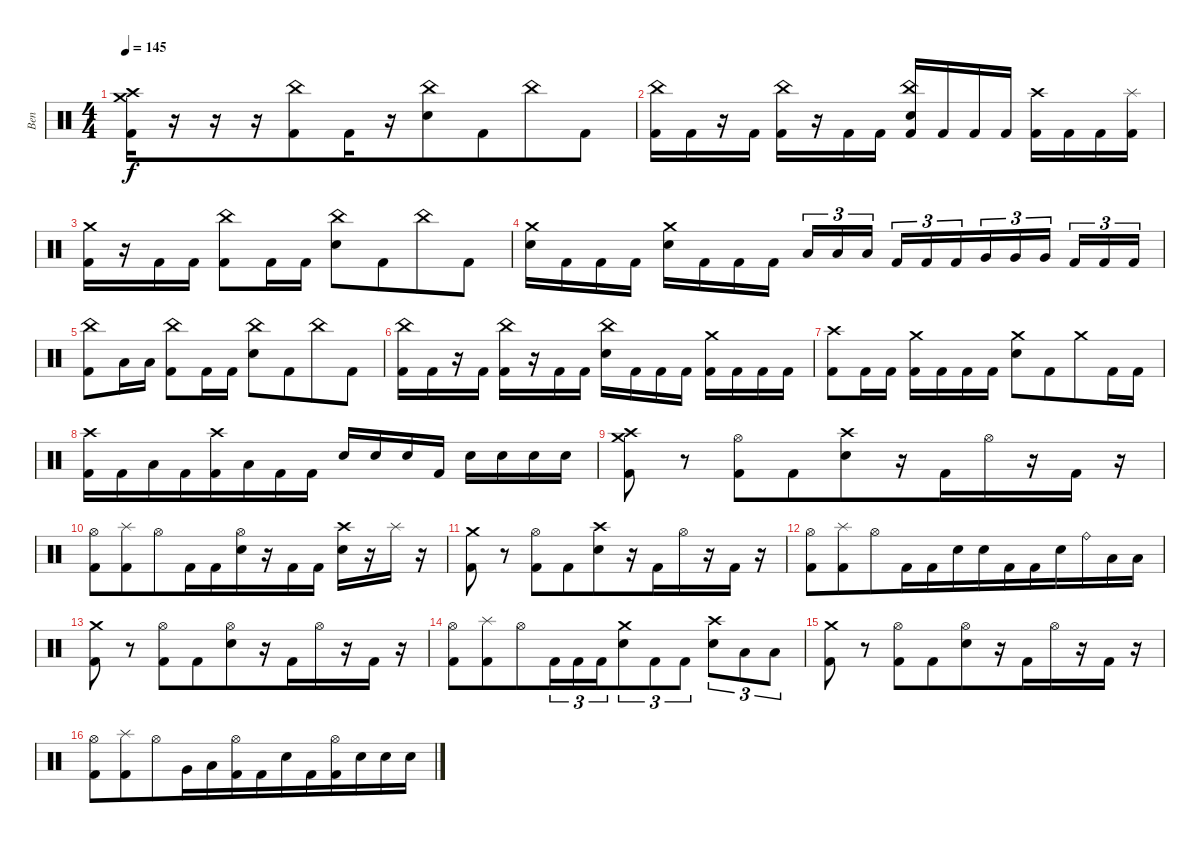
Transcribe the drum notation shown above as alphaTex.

\track ("Ben" "Ben") {instrument percussion}
\staff {score}
\articulation defaults
\ts (4 4)
\tempo 145
\clef neutral
\ks c
("Crash medium (hit)" "Crash high (hit)" "Kick (hit) 2").16{dy f beam merge} r.16 r.16 r.16 ("China (hit)" "Kick (hit) 2").8{beam merge} "Kick (hit) 2".16{beam merge} r.16 ("China (hit)" "Electric Snare (hit)").8 "Kick (hit) 2".8{beam merge} "China (hit)".8 "Kick (hit) 2".8 |
("China (hit)" "Kick (hit) 2").16 "Kick (hit) 2".16{beam merge} r.16{beam merge} "Kick (hit) 2".16 ("China (hit)" "Kick (hit) 2").16 r.16{beam merge} "Kick (hit) 2".16{beam merge} "Kick (hit) 2".16 ("China (hit)" "Electric Snare (hit)" "Kick (hit) 2").16 "Kick (hit) 2".16 "Kick (hit) 2".16{beam merge} "Kick (hit) 2".16 ("Crash high (hit)" "Kick (hit) 2").16{beam merge} "Kick (hit) 2".16{beam merge} "Kick (hit) 2".16 ("Kick (hit) 2" "Splash (hit)").16 |
("Crash medium (hit)" "Kick (hit) 2").16{beam merge} r.16 "Kick (hit) 2".16 "Kick (hit) 2".16 ("China (hit)" "Kick (hit) 2").8{beam merge} "Kick (hit) 2".16{beam merge} "Kick (hit) 2".16 ("China (hit)" "Electric Snare (hit)").8 "Kick (hit) 2".8{beam merge} "China (hit)".8 "Kick (hit) 2".8 |
("Crash medium (hit)" "Electric Snare (hit)").16 "Kick (hit) 2".16 "Kick (hit) 2".16{beam merge} "Kick (hit) 2".16 ("Crash medium (hit)" "Electric Snare (hit)").16{beam merge} "Kick (hit) 2".16 "Kick (hit) 2".16 "Kick (hit) 2".16 "Low Tom (hit)".16{tu (3 2) beam merge} "Low Tom (hit)".16{tu (3 2)} "Low Tom (hit)".16{tu (3 2) beam splitsecondary} "Kick (hit) 2".16{tu (3 2)} "Kick (hit) 2".16{tu (3 2) beam merge} "Kick (hit) 2".16{tu (3 2) beam merge} "Very Low Tom (hit)".16{tu (3 2)} "Very Low Tom (hit)".16{tu (3 2) beam merge} "Very Low Tom (hit)".16{tu (3 2) beam splitsecondary} "Kick (hit) 2".16{tu (3 2)} "Kick (hit) 2".16{tu (3 2) beam merge} "Kick (hit) 2".16{tu (3 2)} |
("China (hit)" "Kick (hit) 2").8 "Low Floor Tom (hit)".16 "Low Floor Tom (hit)".16 ("China (hit)" "Kick (hit) 2").8{beam merge} "Kick (hit) 2".16{beam merge} "Kick (hit) 2".16 ("China (hit)" "Electric Snare (hit)").8 "Kick (hit) 2".8{beam merge} "China (hit)".8 "Kick (hit) 2".8 |
("China (hit)" "Kick (hit) 2").16 "Kick (hit) 2".16{beam merge} r.16{beam merge} "Kick (hit) 2".16 ("China (hit)" "Kick (hit) 2").16 r.16{beam merge} "Kick (hit) 2".16{beam merge} "Kick (hit) 2".16 ("China (hit)" "Electric Snare (hit)").16 "Kick (hit) 2".16 "Kick (hit) 2".16{beam merge} "Kick (hit) 2".16 ("Crash medium (hit)" "Kick (hit) 2").16{beam merge} "Kick (hit) 2".16{beam merge} "Kick (hit) 2".16 "Kick (hit) 2".16 |
("Crash high (hit)" "Kick (hit) 2").8 "Kick (hit) 2".16 "Kick (hit) 2".16 ("Crash medium (hit)" "Kick (hit) 2").16{beam merge} "Kick (hit) 2".16{beam merge} "Kick (hit) 2".16{beam merge} "Kick (hit) 2".16 ("Crash medium (hit)" "Electric Snare (hit)").8 "Kick (hit) 2".8{beam merge} "Crash medium (hit)".8 "Kick (hit) 2".16{beam merge} "Kick (hit) 2".16 |
("Kick (hit) 2" "Crash high (hit)").16 "Kick (hit) 2".16{beam merge} "Low Tom (hit)".16{beam merge} "Kick (hit) 2".16{beam merge} ("Kick (hit) 2" "Crash high (hit)").16{beam merge} "Low Floor Tom (hit)".16{beam merge} "Kick (hit) 2".16{beam merge} "Kick (hit) 2".16 "Electric Snare (hit)".16{beam merge} "Electric Snare (hit)".16 "Electric Snare (hit)".16 "Kick (hit) 2".16 "Electric Snare (hit)".16{beam merge} "Electric Snare (hit)".16{beam merge} "Electric Snare (hit)".16 "Electric Snare (hit)".16 |
("Crash medium (hit)" "Crash high (hit)" "Kick (hit) 2").8 r.8 ("Hi-Hat (open)" "Kick (hit) 2").8{beam merge} "Kick (hit) 2".8{beam merge} ("Crash high (hit)" "Electric Snare (hit)").8 r.16{beam merge} "Kick (hit) 2".16{beam merge} "Hi-Hat (open)".16 r.16 "Kick (hit) 2".16 r.16 |
("Kick (hit) 2" "Hi-Hat (open)").8{beam merge} ("Kick (hit) 2" "Splash (hit)").8{beam merge} "Hi-Hat (open)".8{beam merge} "Kick (hit) 2".16{beam merge} "Kick (hit) 2".16{beam merge} ("Hi-Hat (open)" "Electric Snare (hit)").16 r.16 "Kick (hit) 2".16 "Kick (hit) 2".16 ("Crash high (hit)" "Electric Snare (hit)").16 r.16 "Splash (hit)".16{beam merge} r.16 |
("Crash medium (hit)" "Kick (hit) 2").8 r.8 ("Hi-Hat (open)" "Kick (hit) 2").8{beam merge} "Kick (hit) 2".8{beam merge} ("Crash high (hit)" "Electric Snare (hit)").8 r.16{beam merge} "Kick (hit) 2".16{beam merge} "Hi-Hat (open)".16 r.16 "Kick (hit) 2".16 r.16 |
("Kick (hit) 2" "Hi-Hat (open)").8{beam merge} ("Kick (hit) 2" "Splash (hit)").8{beam merge} "Hi-Hat (open)".8{beam merge} "Kick (hit) 2".16{beam merge} "Kick (hit) 2".16{beam merge} "Electric Snare (hit)".16{beam merge} "Electric Snare (hit)".16{beam merge} "Kick (hit) 2".16{beam merge} "Kick (hit) 2".16{beam merge} "Electric Snare (hit)".16{beam merge} "Ride (bell)".16{beam merge} "Low Floor Tom (hit)".16{beam merge} "Low Floor Tom (hit)".16 |
("Crash medium (hit)" "Kick (hit) 2").8 r.8 ("Hi-Hat (open)" "Kick (hit) 2").8{beam merge} "Kick (hit) 2".8{beam merge} ("Hi-Hat (open)" "Electric Snare (hit)").8 r.16{beam merge} "Kick (hit) 2".16{beam merge} "Hi-Hat (open)".16 r.16 "Kick (hit) 2".16 r.16 |
("Kick (hit) 2" "Hi-Hat (open)").8{beam merge} ("Kick (hit) 2" "Splash (hit)").8{beam merge} "Hi-Hat (open)".8{beam merge} "Kick (hit) 2".16{tu (3 2) beam merge} "Kick (hit) 2".16{tu (3 2) beam merge} "Kick (hit) 2".16{tu (3 2) beam merge} ("Electric Snare (hit)" "Crash medium (hit)").8{tu (3 2)} "Kick (hit) 2".8{tu (3 2)} "Kick (hit) 2".8{tu (3 2)} ("Electric Snare (hit)" "Crash high (hit)").8{tu (3 2)} "Low Floor Tom (hit)".8{tu (3 2)} "Low Floor Tom (hit)".8{tu (3 2)} |
("Crash medium (hit)" "Kick (hit) 2").8 r.8 ("Hi-Hat (open)" "Kick (hit) 2").8{beam merge} "Kick (hit) 2".8{beam merge} ("Hi-Hat (open)" "Electric Snare (hit)").8 r.16{beam merge} "Kick (hit) 2".16{beam merge} "Hi-Hat (open)".16 r.16 "Kick (hit) 2".16 r.16 |
("Kick (hit) 2" "Hi-Hat (open)").8{beam merge} ("Kick (hit) 2" "Splash (hit)").8{beam merge} "Hi-Hat (open)".8{beam merge} "Very Low Tom (hit)".16{beam merge} "Low Floor Tom (hit)".16{beam merge} ("Kick (hit) 2" "Hi-Hat (open)").16 "Kick (hit) 2".16 "Electric Snare (hit)".16{beam merge} "Kick (hit) 2".16{beam merge} ("Kick (hit) 2" "Hi-Hat (open)").16{beam merge} "Electric Snare (hit)".16 "Electric Snare (hit)".16{beam merge} "Electric Snare (hit)".16
